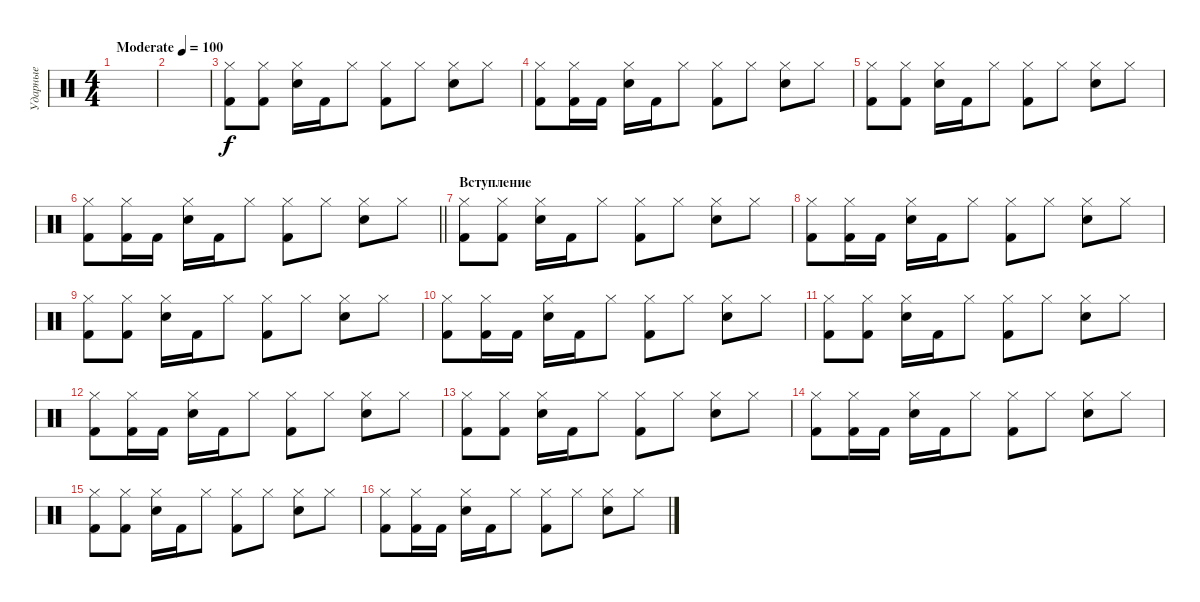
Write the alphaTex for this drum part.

\track ("Ударные" "Ударные") {instrument percussion}
\staff {score}
\articulation defaults
\ts (4 4)
\tempo (100 "Moderate")
\clef neutral
\ks c
|
|
("Hi-Hat (closed)" "Kick (hit) 2").8 ("Hi-Hat (closed)" "Kick (hit) 2").8 ("Hi-Hat (closed)" "Snare (hit) 2").16 "Kick (hit) 2".16 "Hi-Hat (closed)".8 ("Hi-Hat (closed)" "Kick (hit) 2").8 "Hi-Hat (closed)".8 ("Hi-Hat (closed)" "Snare (hit) 2").8 "Hi-Hat (closed)".8 |
("Hi-Hat (closed)" "Kick (hit) 2").8 ("Hi-Hat (closed)" "Kick (hit) 2").16 "Kick (hit) 2".16 ("Hi-Hat (closed)" "Snare (hit) 2").16 "Kick (hit) 2".16 "Hi-Hat (closed)".8 ("Hi-Hat (closed)" "Kick (hit) 2").8 "Hi-Hat (closed)".8 ("Hi-Hat (closed)" "Snare (hit) 2").8 "Hi-Hat (closed)".8 |
("Hi-Hat (closed)" "Kick (hit) 2").8 ("Hi-Hat (closed)" "Kick (hit) 2").8 ("Hi-Hat (closed)" "Snare (hit) 2").16 "Kick (hit) 2".16 "Hi-Hat (closed)".8 ("Hi-Hat (closed)" "Kick (hit) 2").8 "Hi-Hat (closed)".8 ("Hi-Hat (closed)" "Snare (hit) 2").8 "Hi-Hat (closed)".8 |
\barLineRight lightlight
("Hi-Hat (closed)" "Kick (hit) 2").8 ("Hi-Hat (closed)" "Kick (hit) 2").16 "Kick (hit) 2".16 ("Hi-Hat (closed)" "Snare (hit) 2").16 "Kick (hit) 2".16 "Hi-Hat (closed)".8 ("Hi-Hat (closed)" "Kick (hit) 2").8 "Hi-Hat (closed)".8 ("Hi-Hat (closed)" "Snare (hit) 2").8 "Hi-Hat (closed)".8 |
\section ("" "Вступление")
("Hi-Hat (closed)" "Kick (hit) 2").8 ("Hi-Hat (closed)" "Kick (hit) 2").8 ("Hi-Hat (closed)" "Snare (hit) 2").16 "Kick (hit) 2".16 "Hi-Hat (closed)".8 ("Hi-Hat (closed)" "Kick (hit) 2").8 "Hi-Hat (closed)".8 ("Hi-Hat (closed)" "Snare (hit) 2").8 "Hi-Hat (closed)".8 |
("Hi-Hat (closed)" "Kick (hit) 2").8 ("Hi-Hat (closed)" "Kick (hit) 2").16 "Kick (hit) 2".16 ("Hi-Hat (closed)" "Snare (hit) 2").16 "Kick (hit) 2".16 "Hi-Hat (closed)".8 ("Hi-Hat (closed)" "Kick (hit) 2").8 "Hi-Hat (closed)".8 ("Hi-Hat (closed)" "Snare (hit) 2").8 "Hi-Hat (closed)".8 |
("Hi-Hat (closed)" "Kick (hit) 2").8 ("Hi-Hat (closed)" "Kick (hit) 2").8 ("Hi-Hat (closed)" "Snare (hit) 2").16 "Kick (hit) 2".16 "Hi-Hat (closed)".8 ("Hi-Hat (closed)" "Kick (hit) 2").8 "Hi-Hat (closed)".8 ("Hi-Hat (closed)" "Snare (hit) 2").8 "Hi-Hat (closed)".8 |
("Hi-Hat (closed)" "Kick (hit) 2").8 ("Hi-Hat (closed)" "Kick (hit) 2").16 "Kick (hit) 2".16 ("Hi-Hat (closed)" "Snare (hit) 2").16 "Kick (hit) 2".16 "Hi-Hat (closed)".8 ("Hi-Hat (closed)" "Kick (hit) 2").8 "Hi-Hat (closed)".8 ("Hi-Hat (closed)" "Snare (hit) 2").8 "Hi-Hat (closed)".8 |
("Hi-Hat (closed)" "Kick (hit) 2").8 ("Hi-Hat (closed)" "Kick (hit) 2").8 ("Hi-Hat (closed)" "Snare (hit) 2").16 "Kick (hit) 2".16 "Hi-Hat (closed)".8 ("Hi-Hat (closed)" "Kick (hit) 2").8 "Hi-Hat (closed)".8 ("Hi-Hat (closed)" "Snare (hit) 2").8 "Hi-Hat (closed)".8 |
("Hi-Hat (closed)" "Kick (hit) 2").8 ("Hi-Hat (closed)" "Kick (hit) 2").16 "Kick (hit) 2".16 ("Hi-Hat (closed)" "Snare (hit) 2").16 "Kick (hit) 2".16 "Hi-Hat (closed)".8 ("Hi-Hat (closed)" "Kick (hit) 2").8 "Hi-Hat (closed)".8 ("Hi-Hat (closed)" "Snare (hit) 2").8 "Hi-Hat (closed)".8 |
("Hi-Hat (closed)" "Kick (hit) 2").8 ("Hi-Hat (closed)" "Kick (hit) 2").8 ("Hi-Hat (closed)" "Snare (hit) 2").16 "Kick (hit) 2".16 "Hi-Hat (closed)".8 ("Hi-Hat (closed)" "Kick (hit) 2").8 "Hi-Hat (closed)".8 ("Hi-Hat (closed)" "Snare (hit) 2").8 "Hi-Hat (closed)".8 |
("Hi-Hat (closed)" "Kick (hit) 2").8 ("Hi-Hat (closed)" "Kick (hit) 2").16 "Kick (hit) 2".16 ("Hi-Hat (closed)" "Snare (hit) 2").16 "Kick (hit) 2".16 "Hi-Hat (closed)".8 ("Hi-Hat (closed)" "Kick (hit) 2").8 "Hi-Hat (closed)".8 ("Hi-Hat (closed)" "Snare (hit) 2").8 "Hi-Hat (closed)".8 |
("Hi-Hat (closed)" "Kick (hit) 2").8 ("Hi-Hat (closed)" "Kick (hit) 2").8 ("Hi-Hat (closed)" "Snare (hit) 2").16 "Kick (hit) 2".16 "Hi-Hat (closed)".8 ("Hi-Hat (closed)" "Kick (hit) 2").8 "Hi-Hat (closed)".8 ("Hi-Hat (closed)" "Snare (hit) 2").8 "Hi-Hat (closed)".8 |
("Hi-Hat (closed)" "Kick (hit) 2").8 ("Hi-Hat (closed)" "Kick (hit) 2").16 "Kick (hit) 2".16 ("Hi-Hat (closed)" "Snare (hit) 2").16 "Kick (hit) 2".16 "Hi-Hat (closed)".8 ("Hi-Hat (closed)" "Kick (hit) 2").8 "Hi-Hat (closed)".8 ("Hi-Hat (closed)" "Snare (hit) 2").8 "Hi-Hat (closed)".8
